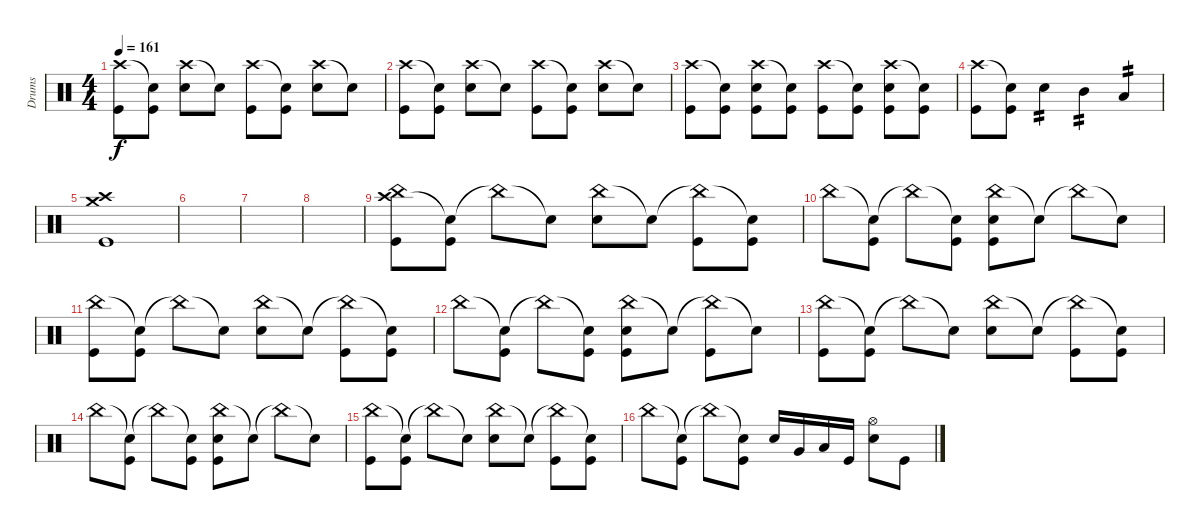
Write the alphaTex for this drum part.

\track ("Drums" "Drums") {instrument percussion}
\staff {score}
\articulation defaults
\ts (4 4)
\tempo 161
\clef neutral
\ks c
("Crash high (hit)" "Kick (hit)").8{dy f} ("Snare (hit)"{t} "Kick (hit)").8 ("Crash high (hit)" "Snare (hit) 2").8 "Snare (hit)"{t}.8 ("Crash high (hit)" "Kick (hit)").8 ("Snare (hit)"{t} "Kick (hit)").8 ("Crash high (hit)" "Snare (hit) 2").8 "Snare (hit)"{t}.8 |
("Crash high (hit)" "Kick (hit)").8 ("Snare (hit)"{t} "Kick (hit)").8 ("Crash high (hit)" "Snare (hit) 2").8 "Snare (hit)"{t}.8 ("Crash high (hit)" "Kick (hit)").8 ("Snare (hit)"{t} "Kick (hit)").8 ("Crash high (hit)" "Snare (hit) 2").8 "Snare (hit)"{t}.8 |
("Crash high (hit)" "Kick (hit)").8 ("Snare (hit)"{t} "Kick (hit)").8 ("Crash high (hit)" "Snare (hit) 2" "Kick (hit)").8 ("Snare (hit)"{t} "Kick (hit)").8 ("Crash high (hit)" "Kick (hit)").8 ("Snare (hit)"{t} "Kick (hit)").8 ("Crash high (hit)" "Snare (hit) 2" "Kick (hit)").8 ("Snare (hit)"{t} "Kick (hit)").8 |
("Crash high (hit)" "Kick (hit)").8 ("Snare (hit)"{t} "Kick (hit)").8 "Snare (hit) 2".4{tp 2} "Mid Tom (hit)".4{tp 2} "Low Tom (hit)".4{tp 2} |
("Crash medium (hit)" "Crash high (hit)" "Kick (hit)").1 |
|
|
|
("Crash high (hit)" "China (hit)" "Kick (hit)").8 ("Snare (hit)"{t} "Kick (hit)").8 "China (hit)"{t}.8 "Snare (hit)"{t}.8 ("China (hit)" "Snare (hit) 2").8 "Snare (hit)"{t}.8 ("China (hit)"{t} "Kick (hit)").8 ("Snare (hit)"{t} "Kick (hit)").8 |
"China (hit)".8 ("Snare (hit)"{t} "Kick (hit)").8 "China (hit)"{t}.8 ("Snare (hit)"{t} "Kick (hit)").8 ("China (hit)" "Snare (hit) 2" "Kick (hit)").8 "Snare (hit)"{t}.8 "China (hit)"{t}.8 "Snare (hit)"{t}.8 |
("China (hit)" "Kick (hit)").8 ("Snare (hit)"{t} "Kick (hit)").8 "China (hit)"{t}.8 "Snare (hit)"{t}.8 ("China (hit)" "Snare (hit) 2").8 "Snare (hit)"{t}.8 ("China (hit)"{t} "Kick (hit)").8 ("Snare (hit)"{t} "Kick (hit)").8 |
"China (hit)".8 ("Snare (hit)"{t} "Kick (hit)").8 "China (hit)"{t}.8 ("Snare (hit)"{t} "Kick (hit)").8 ("China (hit)" "Snare (hit) 2" "Kick (hit)").8 "Snare (hit)"{t}.8 ("China (hit)"{t} "Kick (hit)").8 "Snare (hit)"{t}.8 |
("China (hit)" "Kick (hit)").8 ("Snare (hit)"{t} "Kick (hit)").8 "China (hit)"{t}.8 "Snare (hit)"{t}.8 ("China (hit)" "Snare (hit) 2").8 "Snare (hit)"{t}.8 ("China (hit)"{t} "Kick (hit)").8 ("Snare (hit)"{t} "Kick (hit)").8 |
"China (hit)".8 ("Snare (hit)"{t} "Kick (hit)").8 "China (hit)"{t}.8 ("Snare (hit)"{t} "Kick (hit)").8 ("China (hit)" "Snare (hit) 2" "Kick (hit)").8 "Snare (hit)"{t}.8 "China (hit)"{t}.8 "Snare (hit)"{t}.8 |
("China (hit)" "Kick (hit)").8 ("Snare (hit)"{t} "Kick (hit)").8 "China (hit)"{t}.8 "Snare (hit)"{t}.8 ("China (hit)" "Snare (hit) 2").8 "Snare (hit)"{t}.8 ("China (hit)"{t} "Kick (hit)").8 ("Snare (hit)"{t} "Kick (hit)").8 |
"China (hit)".8 ("Snare (hit)"{t} "Kick (hit)").8 "China (hit)"{t}.8 ("Snare (hit)"{t} "Kick (hit)").8 "Snare (hit) 2".16 "Very Low Tom (hit)".16 "Low Tom (hit)".16 "Kick (hit)".16 ("Hi-Hat (open)" "Snare (hit) 2").8 "Kick (hit)".8
